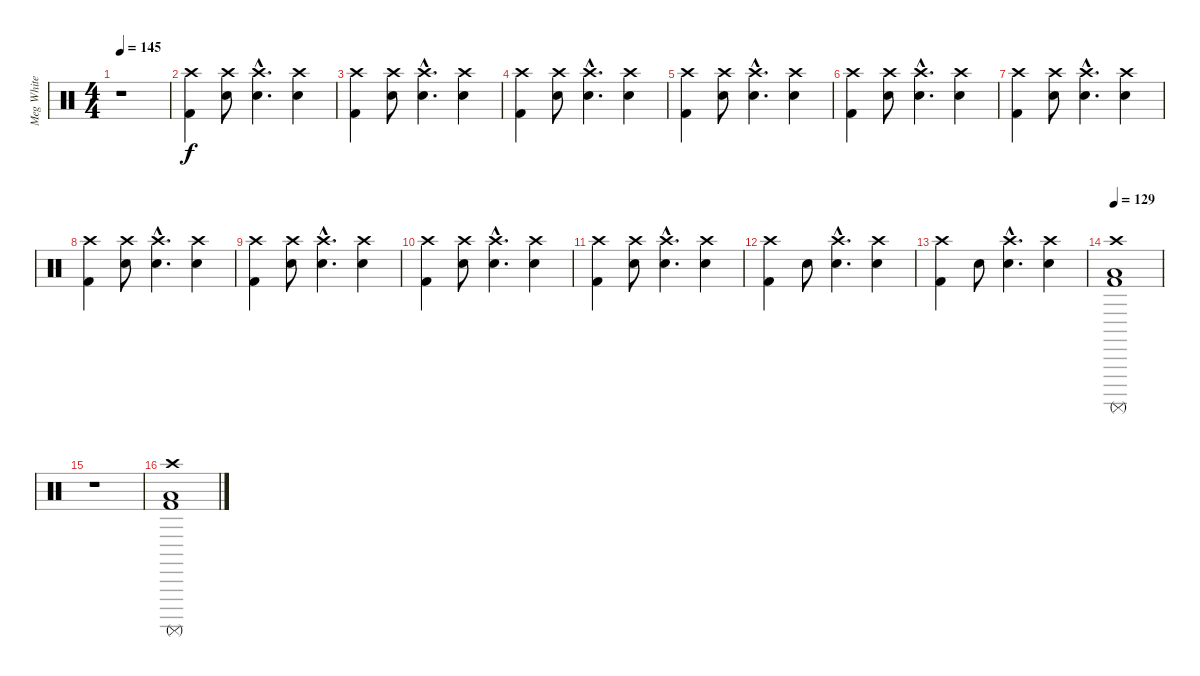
\track ("Meg White" "Meg White") {instrument percussion}
\staff {score}
\articulation defaults
\ts (4 4)
\tempo 145
\clef neutral
\ks c
r.1{dy f} |
("Crash high (hit)" "Kick (hit) 2").4 ("Crash high (hit)" "Electric Snare (hit)").8 ("Crash high (hit)"{hac} "Electric Snare (hit)"{hac}).4{d} ("Crash high (hit)" "Electric Snare (hit)").4 |
("Crash high (hit)" "Kick (hit) 2").4 ("Crash high (hit)" "Electric Snare (hit)").8 ("Crash high (hit)"{hac} "Electric Snare (hit)"{hac}).4{d} ("Crash high (hit)" "Electric Snare (hit)").4 |
("Crash high (hit)" "Kick (hit) 2").4 ("Crash high (hit)" "Electric Snare (hit)").8 ("Crash high (hit)"{hac} "Electric Snare (hit)"{hac}).4{d} ("Crash high (hit)" "Electric Snare (hit)").4 |
("Crash high (hit)" "Kick (hit) 2").4 ("Crash high (hit)" "Electric Snare (hit)").8 ("Crash high (hit)"{hac} "Electric Snare (hit)"{hac}).4{d} ("Crash high (hit)" "Electric Snare (hit)").4 |
("Crash high (hit)" "Kick (hit) 2").4 ("Crash high (hit)" "Electric Snare (hit)").8 ("Crash high (hit)"{hac} "Electric Snare (hit)"{hac}).4{d} ("Crash high (hit)" "Electric Snare (hit)").4 |
("Crash high (hit)" "Kick (hit) 2").4 ("Crash high (hit)" "Electric Snare (hit)").8 ("Crash high (hit)"{hac} "Electric Snare (hit)"{hac}).4{d} ("Crash high (hit)" "Electric Snare (hit)").4 |
("Crash high (hit)" "Kick (hit) 2").4 ("Crash high (hit)" "Electric Snare (hit)").8 ("Crash high (hit)"{hac} "Electric Snare (hit)"{hac}).4{d} ("Crash high (hit)" "Electric Snare (hit)").4 |
("Crash high (hit)" "Kick (hit) 2").4 ("Crash high (hit)" "Electric Snare (hit)").8 ("Crash high (hit)"{hac} "Electric Snare (hit)"{hac}).4{d} ("Crash high (hit)" "Electric Snare (hit)").4 |
("Crash high (hit)" "Kick (hit) 2").4 ("Crash high (hit)" "Electric Snare (hit)").8 ("Crash high (hit)"{hac} "Electric Snare (hit)"{hac}).4{d} ("Crash high (hit)" "Electric Snare (hit)").4 |
("Crash high (hit)" "Kick (hit) 2").4 ("Crash high (hit)" "Electric Snare (hit)").8 ("Crash high (hit)"{hac} "Electric Snare (hit)"{hac}).4{d} ("Crash high (hit)" "Electric Snare (hit)").4 |
("Crash high (hit)" "Kick (hit) 2").4 "Electric Snare (hit)".8 ("Crash high (hit)"{hac} "Electric Snare (hit)"{hac}).4{d} ("Crash high (hit)" "Electric Snare (hit)").4 |
("Crash high (hit)" "Kick (hit) 2").4 "Electric Snare (hit)".8 ("Crash high (hit)"{hac} "Electric Snare (hit)"{hac}).4{d} ("Crash high (hit)" "Electric Snare (hit)").4 |
\tempo 129
("Crash high (hit)" "Low Tom (hit)" "Surdo (mute)" "Kick (hit) 2").1 |
r.1 |
("Crash high (hit)" "Low Tom (hit)" "Surdo (mute)" "Kick (hit) 2").1
